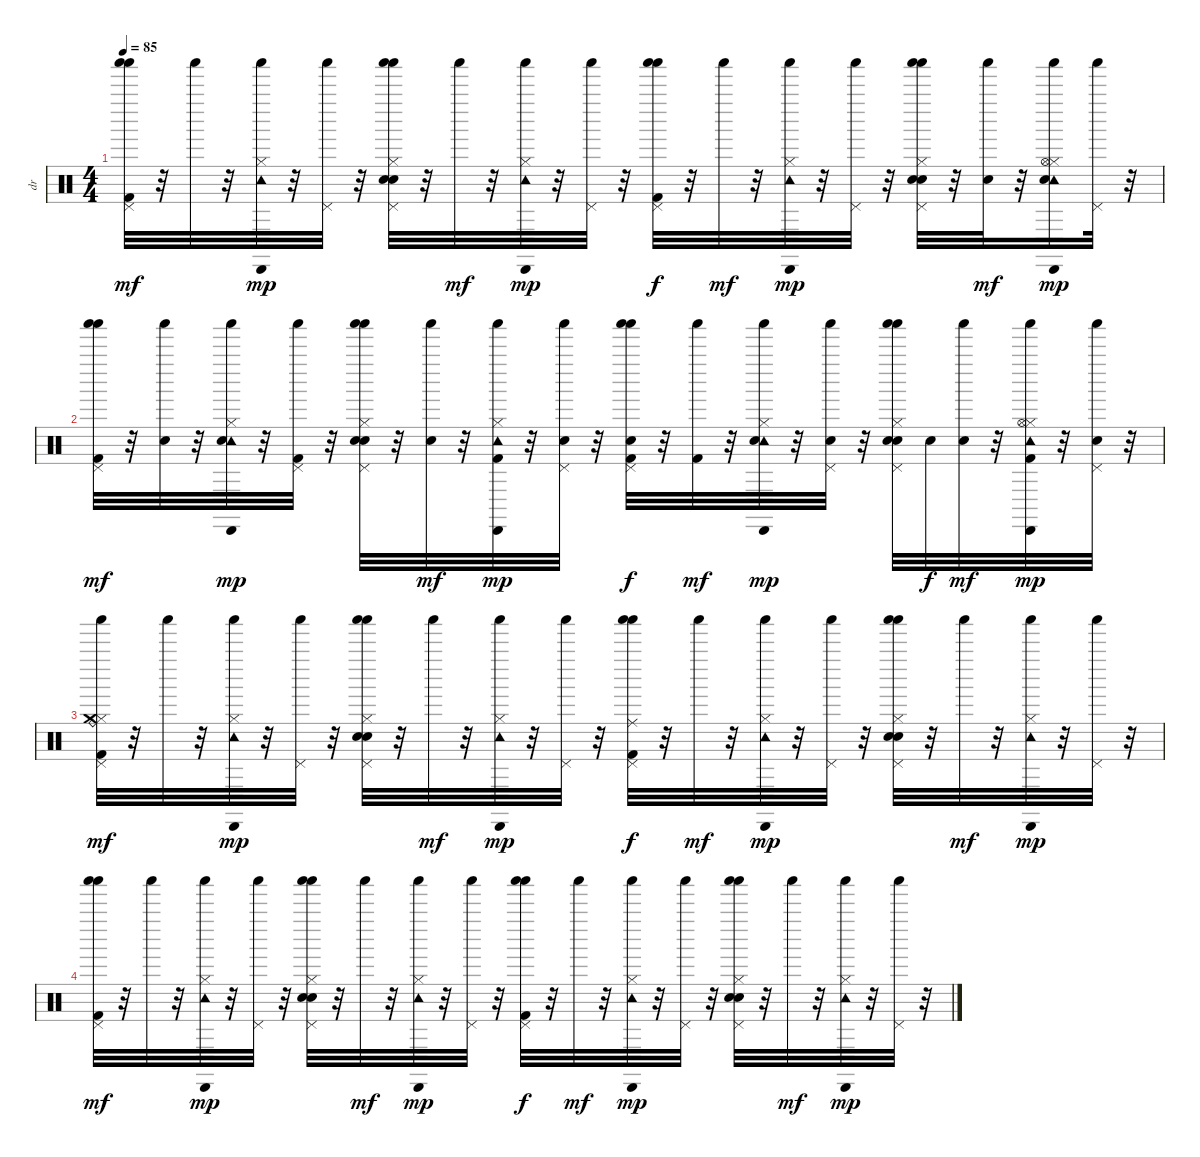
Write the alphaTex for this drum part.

\track ("dr" "dr") {instrument percussion}
\staff {score}
\articulation defaults
\ts (4 4)
\tempo 85
\clef neutral
\ks c
("Kick (hit) 2" "Shaker (hit)" "Shaker (hit)" "Pedal Hi-Hat (hit)").32{dy mf} r.32 "Shaker (hit)".32 r.32 ("Hi-Hat (closed)" "Cabasa (hit)" "Tambourine (hit)" "Shaker (hit)").32{dy mp} r.32 ("Pedal Hi-Hat (hit)" "Shaker (hit)").32 r.32 ("Pedal Hi-Hat (hit)" "Shaker (hit)" "Shaker (hit)" "Hi-Hat (closed)" "Electric Snare (hit)" "Snare (hit) 2").32 r.32 "Shaker (hit)".32{dy mf} r.32 ("Hi-Hat (closed)" "Cabasa (hit)" "Tambourine (hit)" "Shaker (hit)").32{dy mp} r.32 ("Pedal Hi-Hat (hit)" "Shaker (hit)").32 r.32 ("Pedal Hi-Hat (hit)" "Shaker (hit)" "Shaker (hit)" "Kick (hit) 2").32{dy f} r.32 "Shaker (hit)".32{dy mf} r.32 ("Hi-Hat (closed)" "Cabasa (hit)" "Tambourine (hit)" "Shaker (hit)").32{dy mp} r.32 ("Pedal Hi-Hat (hit)" "Shaker (hit)").32 r.32 ("Electric Snare (hit)" "Pedal Hi-Hat (hit)" "Shaker (hit)" "Shaker (hit)" "Hi-Hat (closed)" "Snare (hit) 2").32 r.32 ("Shaker (hit)" "Snare (hit) 2").32{dy mf} r.32 ("Hi-Hat (closed)" "Cabasa (hit)" "Tambourine (hit)" "Shaker (hit)" "Hi-Hat (open)" "Snare (hit) 2").16{dy mp} ("Pedal Hi-Hat (hit)" "Shaker (hit)").32 r.32 |
("Kick (hit) 2" "Shaker (hit)" "Shaker (hit)" "Pedal Hi-Hat (hit)").32{dy mf} r.32 ("Shaker (hit)" "Snare (hit) 2").32 r.32 ("Hi-Hat (closed)" "Cabasa (hit)" "Tambourine (hit)" "Shaker (hit)" "Snare (hit) 2").32{dy mp} r.32 ("Shaker (hit)" "Pedal Hi-Hat (hit)" "Kick (hit) 2").32 r.32 ("Shaker (hit)" "Shaker (hit)" "Pedal Hi-Hat (hit)" "Hi-Hat (closed)" "Electric Snare (hit)" "Snare (hit) 2").32 r.32 ("Shaker (hit)" "Snare (hit) 2").32{dy mf} r.32 ("Hi-Hat (closed)" "Cabasa (hit)" "Tambourine (hit)" "Shaker (hit)" "Kick (hit) 2").32{dy mp} r.32 ("Pedal Hi-Hat (hit)" "Shaker (hit)" "Snare (hit) 2").32 r.32 ("Pedal Hi-Hat (hit)" "Shaker (hit)" "Shaker (hit)" "Kick (hit) 2" "Snare (hit) 2").32{dy f} r.32 ("Shaker (hit)" "Kick (hit) 2").32{dy mf} r.32 ("Hi-Hat (closed)" "Cabasa (hit)" "Tambourine (hit)" "Shaker (hit)" "Snare (hit) 2").32{dy mp} r.32 ("Pedal Hi-Hat (hit)" "Shaker (hit)" "Snare (hit) 2").32 r.32 ("Electric Snare (hit)" "Pedal Hi-Hat (hit)" "Shaker (hit)" "Shaker (hit)" "Hi-Hat (closed)" "Snare (hit) 2").32 "Snare (hit) 2".32{dy f} ("Shaker (hit)" "Snare (hit) 2").32{dy mf} r.32 ("Hi-Hat (closed)" "Cabasa (hit)" "Tambourine (hit)" "Shaker (hit)" "Hi-Hat (open)" "Kick (hit) 2").32{dy mp} r.32 ("Pedal Hi-Hat (hit)" "Shaker (hit)" "Snare (hit) 2").32 r.32 |
("Kick (hit) 2" "Pedal Hi-Hat (hit)" "Hi-Hat (closed)" "Ride (bell)" "Crash medium (hit)" "Shaker (hit)").32{dy mf} r.32 "Shaker (hit)".32 r.32 ("Hi-Hat (closed)" "Tambourine (hit)" "Cabasa (hit)" "Shaker (hit)").32{dy mp} r.32 ("Pedal Hi-Hat (hit)" "Shaker (hit)").32 r.32 ("Electric Snare (hit)" "Pedal Hi-Hat (hit)" "Shaker (hit)" "Shaker (hit)" "Hi-Hat (closed)" "Snare (hit) 2").32 r.32 "Shaker (hit)".32{dy mf} r.32 ("Hi-Hat (closed)" "Tambourine (hit)" "Cabasa (hit)" "Shaker (hit)").32{dy mp} r.32 ("Pedal Hi-Hat (hit)" "Shaker (hit)").32 r.32 ("Pedal Hi-Hat (hit)" "Shaker (hit)" "Shaker (hit)" "Kick (hit) 2" "Ride (middle)").32{dy f} r.32 "Shaker (hit)".32{dy mf} r.32 ("Hi-Hat (closed)" "Tambourine (hit)" "Cabasa (hit)" "Shaker (hit)").32{dy mp} r.32 ("Pedal Hi-Hat (hit)" "Shaker (hit)").32 r.32 ("Electric Snare (hit)" "Pedal Hi-Hat (hit)" "Shaker (hit)" "Shaker (hit)" "Hi-Hat (closed)" "Snare (hit) 2").32 r.32 "Shaker (hit)".32{dy mf} r.32 ("Hi-Hat (closed)" "Tambourine (hit)" "Cabasa (hit)" "Shaker (hit)").32{dy mp} r.32 ("Pedal Hi-Hat (hit)" "Shaker (hit)").32 r.32 |
("Pedal Hi-Hat (hit)" "Shaker (hit)" "Shaker (hit)" "Kick (hit) 2").32{dy mf} r.32 "Shaker (hit)".32 r.32 ("Hi-Hat (closed)" "Tambourine (hit)" "Cabasa (hit)" "Shaker (hit)").32{dy mp} r.32 ("Pedal Hi-Hat (hit)" "Shaker (hit)").32 r.32 ("Electric Snare (hit)" "Pedal Hi-Hat (hit)" "Shaker (hit)" "Shaker (hit)" "Hi-Hat (closed)" "Snare (hit) 2").32 r.32 "Shaker (hit)".32{dy mf} r.32 ("Hi-Hat (closed)" "Tambourine (hit)" "Cabasa (hit)" "Shaker (hit)").32{dy mp} r.32 ("Pedal Hi-Hat (hit)" "Shaker (hit)").32 r.32 ("Pedal Hi-Hat (hit)" "Shaker (hit)" "Shaker (hit)" "Kick (hit) 2").32{dy f} r.32 "Shaker (hit)".32{dy mf} r.32 ("Hi-Hat (closed)" "Tambourine (hit)" "Cabasa (hit)" "Shaker (hit)").32{dy mp} r.32 ("Pedal Hi-Hat (hit)" "Shaker (hit)").32 r.32 ("Electric Snare (hit)" "Pedal Hi-Hat (hit)" "Shaker (hit)" "Shaker (hit)" "Hi-Hat (closed)" "Snare (hit) 2").32 r.32 "Shaker (hit)".32{dy mf} r.32 ("Hi-Hat (closed)" "Tambourine (hit)" "Cabasa (hit)" "Shaker (hit)").32{dy mp} r.32 ("Pedal Hi-Hat (hit)" "Shaker (hit)").32 r.32
